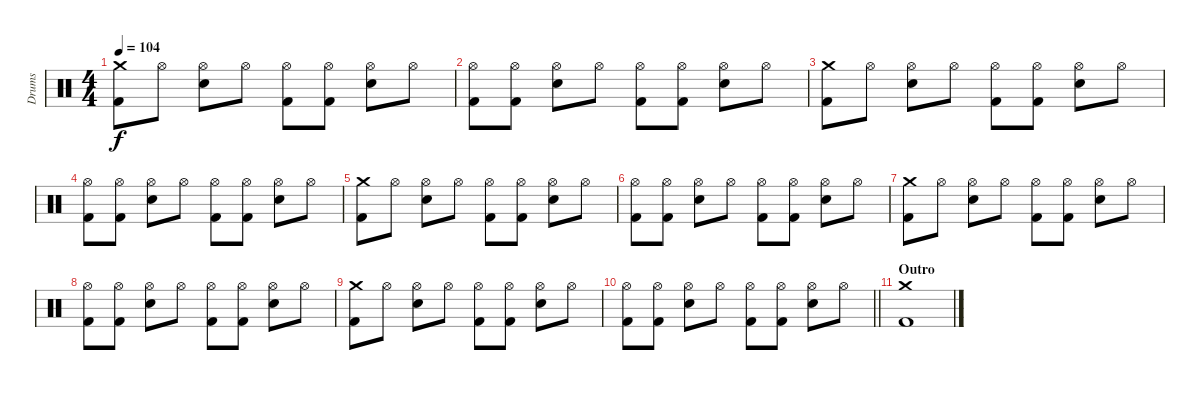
\track ("Drums" "Drums") {instrument percussion}
\staff {score}
\articulation defaults
\ts (4 4)
\tempo 104
\clef neutral
\ks c
("Crash medium (hit)" "Kick (hit) 2").8{dy f} "Hi-Hat (open)".8 ("Hi-Hat (open)" "Snare (hit) 2").8 "Hi-Hat (open)".8 ("Hi-Hat (open)" "Kick (hit) 2").8 ("Hi-Hat (open)" "Kick (hit) 2").8 ("Hi-Hat (open)" "Snare (hit) 2").8 "Hi-Hat (open)".8 |
("Hi-Hat (open)" "Kick (hit) 2").8 ("Hi-Hat (open)" "Kick (hit) 2").8 ("Hi-Hat (open)" "Snare (hit) 2").8 "Hi-Hat (open)".8 ("Hi-Hat (open)" "Kick (hit) 2").8 ("Hi-Hat (open)" "Kick (hit) 2").8 ("Hi-Hat (open)" "Snare (hit) 2").8 "Hi-Hat (open)".8 |
("Crash medium (hit)" "Kick (hit) 2").8 "Hi-Hat (open)".8 ("Hi-Hat (open)" "Snare (hit) 2").8 "Hi-Hat (open)".8 ("Hi-Hat (open)" "Kick (hit) 2").8 ("Hi-Hat (open)" "Kick (hit) 2").8 ("Hi-Hat (open)" "Snare (hit) 2").8 "Hi-Hat (open)".8 |
("Hi-Hat (open)" "Kick (hit) 2").8 ("Hi-Hat (open)" "Kick (hit) 2").8 ("Hi-Hat (open)" "Snare (hit) 2").8 "Hi-Hat (open)".8 ("Hi-Hat (open)" "Kick (hit) 2").8 ("Hi-Hat (open)" "Kick (hit) 2").8 ("Hi-Hat (open)" "Snare (hit) 2").8 "Hi-Hat (open)".8 |
("Crash medium (hit)" "Kick (hit) 2").8 "Hi-Hat (open)".8 ("Hi-Hat (open)" "Snare (hit) 2").8 "Hi-Hat (open)".8 ("Hi-Hat (open)" "Kick (hit) 2").8 ("Hi-Hat (open)" "Kick (hit) 2").8 ("Hi-Hat (open)" "Snare (hit) 2").8 "Hi-Hat (open)".8 |
("Hi-Hat (open)" "Kick (hit) 2").8 ("Hi-Hat (open)" "Kick (hit) 2").8 ("Hi-Hat (open)" "Snare (hit) 2").8 "Hi-Hat (open)".8 ("Hi-Hat (open)" "Kick (hit) 2").8 ("Hi-Hat (open)" "Kick (hit) 2").8 ("Hi-Hat (open)" "Snare (hit) 2").8 "Hi-Hat (open)".8 |
("Crash medium (hit)" "Kick (hit) 2").8 "Hi-Hat (open)".8 ("Hi-Hat (open)" "Snare (hit) 2").8 "Hi-Hat (open)".8 ("Hi-Hat (open)" "Kick (hit) 2").8 ("Hi-Hat (open)" "Kick (hit) 2").8 ("Hi-Hat (open)" "Snare (hit) 2").8 "Hi-Hat (open)".8 |
("Hi-Hat (open)" "Kick (hit) 2").8 ("Hi-Hat (open)" "Kick (hit) 2").8 ("Hi-Hat (open)" "Snare (hit) 2").8 "Hi-Hat (open)".8 ("Hi-Hat (open)" "Kick (hit) 2").8 ("Hi-Hat (open)" "Kick (hit) 2").8 ("Hi-Hat (open)" "Snare (hit) 2").8 "Hi-Hat (open)".8 |
("Crash medium (hit)" "Kick (hit) 2").8 "Hi-Hat (open)".8 ("Hi-Hat (open)" "Snare (hit) 2").8 "Hi-Hat (open)".8 ("Hi-Hat (open)" "Kick (hit) 2").8 ("Hi-Hat (open)" "Kick (hit) 2").8 ("Hi-Hat (open)" "Snare (hit) 2").8 "Hi-Hat (open)".8 |
\barLineRight lightlight
("Hi-Hat (open)" "Kick (hit) 2").8 ("Hi-Hat (open)" "Kick (hit) 2").8 ("Hi-Hat (open)" "Snare (hit) 2").8 "Hi-Hat (open)".8 ("Hi-Hat (open)" "Kick (hit) 2").8 ("Hi-Hat (open)" "Kick (hit) 2").8 ("Hi-Hat (open)" "Snare (hit) 2").8 "Hi-Hat (open)".8 |
\section ("" "Outro")
("Crash medium (hit)" "Kick (hit) 2").1
